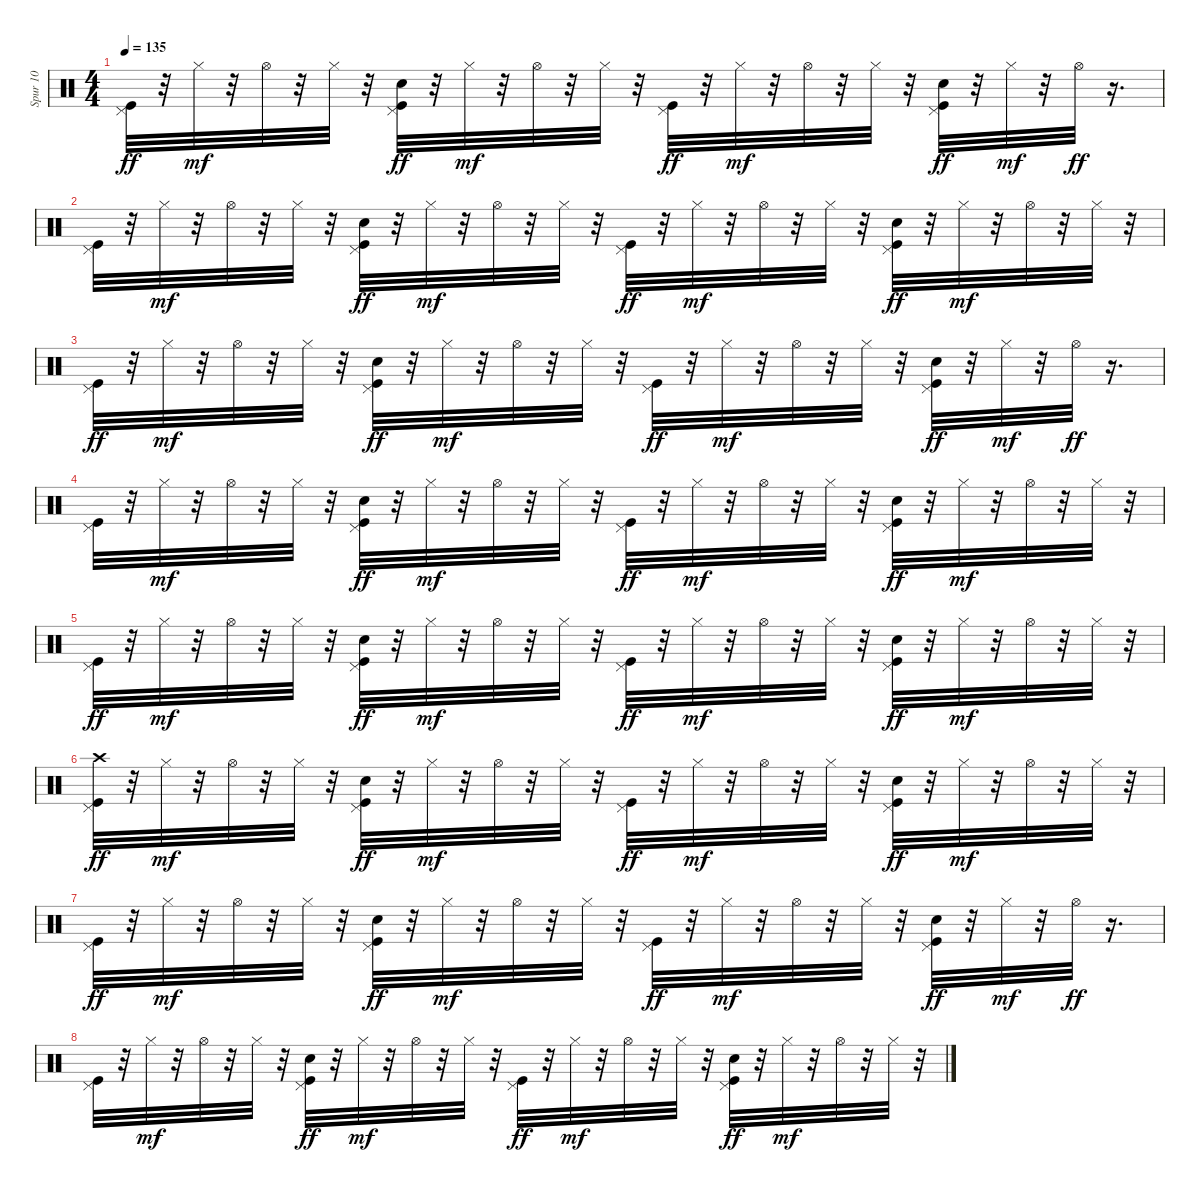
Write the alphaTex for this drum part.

\track ("Spur 10" "Spur 10") {instrument percussion}
\staff {score}
\articulation defaults
\ts (4 4)
\tempo 135
\clef neutral
\ks c
("Kick (hit)" "Pedal Hi-Hat (hit)").32{dy ff} r.32 "Hi-Hat (closed)".32{dy mf} r.32 "Hi-Hat (open)".32 r.32 "Hi-Hat (closed)".32 r.32 ("Kick (hit)" "Hand Clap (hit)" "Pedal Hi-Hat (hit)").32{dy ff} r.32 "Hi-Hat (closed)".32{dy mf} r.32 "Hi-Hat (open)".32 r.32 "Hi-Hat (closed)".32 r.32 ("Kick (hit)" "Pedal Hi-Hat (hit)").32{dy ff} r.32 "Hi-Hat (closed)".32{dy mf} r.32 "Hi-Hat (open)".32 r.32 "Hi-Hat (closed)".32 r.32 ("Kick (hit)" "Hand Clap (hit)" "Pedal Hi-Hat (hit)").32{dy ff} r.32 "Hi-Hat (closed)".32{dy mf} r.32 "Hi-Hat (open)".32{dy ff} r.16{d} |
("Kick (hit)" "Pedal Hi-Hat (hit)").32 r.32 "Hi-Hat (closed)".32{dy mf} r.32 "Hi-Hat (open)".32 r.32 "Hi-Hat (closed)".32 r.32 ("Kick (hit)" "Hand Clap (hit)" "Pedal Hi-Hat (hit)").32{dy ff} r.32 "Hi-Hat (closed)".32{dy mf} r.32 "Hi-Hat (open)".32 r.32 "Hi-Hat (closed)".32 r.32 ("Kick (hit)" "Pedal Hi-Hat (hit)").32{dy ff} r.32 "Hi-Hat (closed)".32{dy mf} r.32 "Hi-Hat (open)".32 r.32 "Hi-Hat (closed)".32 r.32 ("Kick (hit)" "Hand Clap (hit)" "Pedal Hi-Hat (hit)").32{dy ff} r.32 "Hi-Hat (closed)".32{dy mf} r.32 "Hi-Hat (open)".32 r.32 "Hi-Hat (closed)".32 r.32 |
("Kick (hit)" "Pedal Hi-Hat (hit)").32{dy ff} r.32 "Hi-Hat (closed)".32{dy mf} r.32 "Hi-Hat (open)".32 r.32 "Hi-Hat (closed)".32 r.32 ("Kick (hit)" "Hand Clap (hit)" "Pedal Hi-Hat (hit)").32{dy ff} r.32 "Hi-Hat (closed)".32{dy mf} r.32 "Hi-Hat (open)".32 r.32 "Hi-Hat (closed)".32 r.32 ("Kick (hit)" "Pedal Hi-Hat (hit)").32{dy ff} r.32 "Hi-Hat (closed)".32{dy mf} r.32 "Hi-Hat (open)".32 r.32 "Hi-Hat (closed)".32 r.32 ("Kick (hit)" "Hand Clap (hit)" "Pedal Hi-Hat (hit)").32{dy ff} r.32 "Hi-Hat (closed)".32{dy mf} r.32 "Hi-Hat (open)".32{dy ff} r.16{d} |
("Kick (hit)" "Pedal Hi-Hat (hit)").32 r.32 "Hi-Hat (closed)".32{dy mf} r.32 "Hi-Hat (open)".32 r.32 "Hi-Hat (closed)".32 r.32 ("Kick (hit)" "Hand Clap (hit)" "Pedal Hi-Hat (hit)").32{dy ff} r.32 "Hi-Hat (closed)".32{dy mf} r.32 "Hi-Hat (open)".32 r.32 "Hi-Hat (closed)".32 r.32 ("Kick (hit)" "Pedal Hi-Hat (hit)").32{dy ff} r.32 "Hi-Hat (closed)".32{dy mf} r.32 "Hi-Hat (open)".32 r.32 "Hi-Hat (closed)".32 r.32 ("Kick (hit)" "Hand Clap (hit)" "Pedal Hi-Hat (hit)").32{dy ff} r.32 "Hi-Hat (closed)".32{dy mf} r.32 "Hi-Hat (open)".32 r.32 "Hi-Hat (closed)".32 r.32 |
("Kick (hit)" "Pedal Hi-Hat (hit)").32{dy ff} r.32 "Hi-Hat (closed)".32{dy mf} r.32 "Hi-Hat (open)".32 r.32 "Hi-Hat (closed)".32 r.32 ("Kick (hit)" "Hand Clap (hit)" "Pedal Hi-Hat (hit)").32{dy ff} r.32 "Hi-Hat (closed)".32{dy mf} r.32 "Hi-Hat (open)".32 r.32 "Hi-Hat (closed)".32 r.32 ("Kick (hit)" "Pedal Hi-Hat (hit)").32{dy ff} r.32 "Hi-Hat (closed)".32{dy mf} r.32 "Hi-Hat (open)".32 r.32 "Hi-Hat (closed)".32 r.32 ("Kick (hit)" "Hand Clap (hit)" "Pedal Hi-Hat (hit)").32{dy ff} r.32 "Hi-Hat (closed)".32{dy mf} r.32 "Hi-Hat (open)".32 r.32 "Hi-Hat (closed)".32 r.32 |
("Crash high (hit)" "Kick (hit)" "Pedal Hi-Hat (hit)").32{dy ff} r.32 "Hi-Hat (closed)".32{dy mf} r.32 "Hi-Hat (open)".32 r.32 "Hi-Hat (closed)".32 r.32 ("Kick (hit)" "Hand Clap (hit)" "Pedal Hi-Hat (hit)").32{dy ff} r.32 "Hi-Hat (closed)".32{dy mf} r.32 "Hi-Hat (open)".32 r.32 "Hi-Hat (closed)".32 r.32 ("Kick (hit)" "Pedal Hi-Hat (hit)").32{dy ff} r.32 "Hi-Hat (closed)".32{dy mf} r.32 "Hi-Hat (open)".32 r.32 "Hi-Hat (closed)".32 r.32 ("Kick (hit)" "Hand Clap (hit)" "Pedal Hi-Hat (hit)").32{dy ff} r.32 "Hi-Hat (closed)".32{dy mf} r.32 "Hi-Hat (open)".32 r.32 "Hi-Hat (closed)".32 r.32 |
("Kick (hit)" "Pedal Hi-Hat (hit)").32{dy ff} r.32 "Hi-Hat (closed)".32{dy mf} r.32 "Hi-Hat (open)".32 r.32 "Hi-Hat (closed)".32 r.32 ("Kick (hit)" "Hand Clap (hit)" "Pedal Hi-Hat (hit)").32{dy ff} r.32 "Hi-Hat (closed)".32{dy mf} r.32 "Hi-Hat (open)".32 r.32 "Hi-Hat (closed)".32 r.32 ("Kick (hit)" "Pedal Hi-Hat (hit)").32{dy ff} r.32 "Hi-Hat (closed)".32{dy mf} r.32 "Hi-Hat (open)".32 r.32 "Hi-Hat (closed)".32 r.32 ("Kick (hit)" "Hand Clap (hit)" "Pedal Hi-Hat (hit)").32{dy ff} r.32 "Hi-Hat (closed)".32{dy mf} r.32 "Hi-Hat (open)".32{dy ff} r.16{d} |
("Kick (hit)" "Pedal Hi-Hat (hit)").32 r.32 "Hi-Hat (closed)".32{dy mf} r.32 "Hi-Hat (open)".32 r.32 "Hi-Hat (closed)".32 r.32 ("Kick (hit)" "Hand Clap (hit)" "Pedal Hi-Hat (hit)").32{dy ff} r.32 "Hi-Hat (closed)".32{dy mf} r.32 "Hi-Hat (open)".32 r.32 "Hi-Hat (closed)".32 r.32 ("Kick (hit)" "Pedal Hi-Hat (hit)").32{dy ff} r.32 "Hi-Hat (closed)".32{dy mf} r.32 "Hi-Hat (open)".32 r.32 "Hi-Hat (closed)".32 r.32 ("Kick (hit)" "Hand Clap (hit)" "Pedal Hi-Hat (hit)").32{dy ff} r.32 "Hi-Hat (closed)".32{dy mf} r.32 "Hi-Hat (open)".32 r.32 "Hi-Hat (closed)".32 r.32
